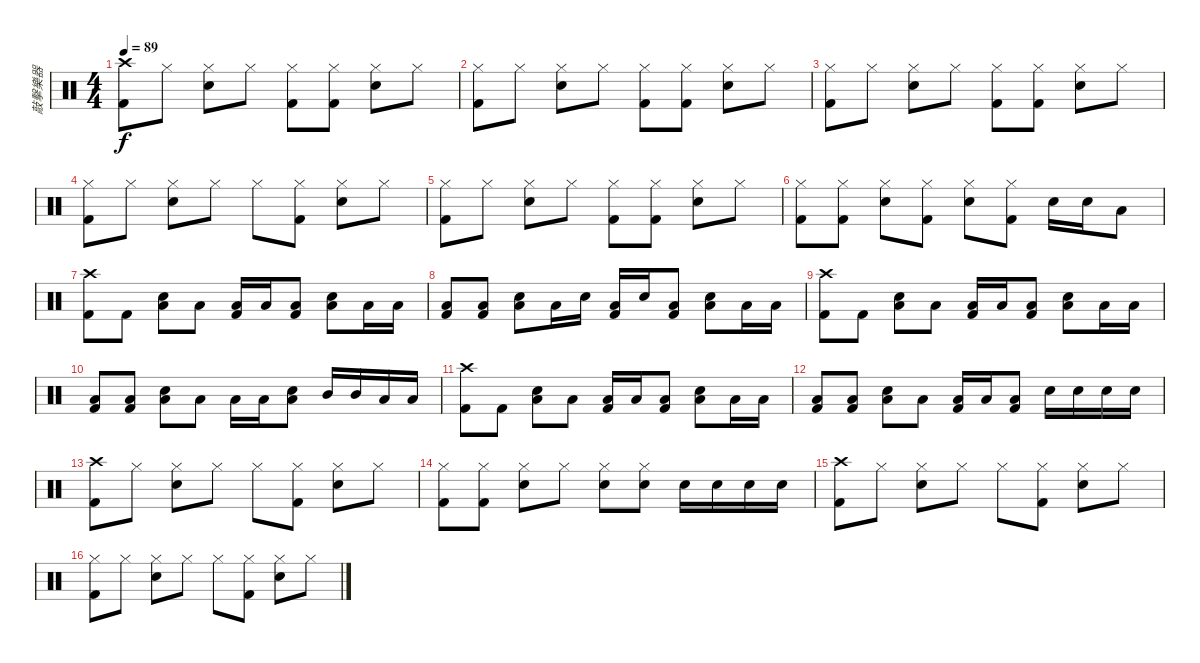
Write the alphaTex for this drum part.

\track ("敲擊樂器" "敲擊樂器") {instrument percussion}
\staff {score}
\articulation defaults
\ts (4 4)
\tempo 89
\clef neutral
\ks c
("Crash high (hit)" "Kick (hit) 2").8{dy f} "Hi-Hat (closed)".8 ("Hi-Hat (closed)" "Snare (hit) 2").8 "Hi-Hat (closed)".8 ("Hi-Hat (closed)" "Kick (hit) 2").8 ("Hi-Hat (closed)" "Kick (hit) 2").8 ("Hi-Hat (closed)" "Snare (hit) 2").8 "Hi-Hat (closed)".8 |
("Hi-Hat (closed)" "Kick (hit) 2").8 "Hi-Hat (closed)".8 ("Hi-Hat (closed)" "Snare (hit) 2").8 "Hi-Hat (closed)".8 ("Hi-Hat (closed)" "Kick (hit) 2").8 ("Hi-Hat (closed)" "Kick (hit) 2").8 ("Hi-Hat (closed)" "Snare (hit) 2").8 "Hi-Hat (closed)".8 |
("Hi-Hat (closed)" "Kick (hit) 2").8 "Hi-Hat (closed)".8 ("Hi-Hat (closed)" "Snare (hit) 2").8 "Hi-Hat (closed)".8 ("Hi-Hat (closed)" "Kick (hit) 2").8 ("Hi-Hat (closed)" "Kick (hit) 2").8 ("Hi-Hat (closed)" "Snare (hit) 2").8 "Hi-Hat (closed)".8 |
("Hi-Hat (closed)" "Kick (hit) 2").8 "Hi-Hat (closed)".8 ("Hi-Hat (closed)" "Snare (hit) 2").8 "Hi-Hat (closed)".8 "Hi-Hat (closed)".8 ("Hi-Hat (closed)" "Kick (hit) 2").8 ("Hi-Hat (closed)" "Snare (hit) 2").8 "Hi-Hat (closed)".8 |
("Hi-Hat (closed)" "Kick (hit) 2").8 "Hi-Hat (closed)".8 ("Hi-Hat (closed)" "Snare (hit) 2").8 "Hi-Hat (closed)".8 ("Hi-Hat (closed)" "Kick (hit) 2").8 ("Hi-Hat (closed)" "Kick (hit) 2").8 ("Hi-Hat (closed)" "Snare (hit) 2").8 "Hi-Hat (closed)".8 |
("Hi-Hat (closed)" "Kick (hit) 2").8 ("Hi-Hat (closed)" "Kick (hit) 2").8 ("Hi-Hat (closed)" "Snare (hit) 2").8 ("Hi-Hat (closed)" "Kick (hit) 2").8 ("Hi-Hat (closed)" "Snare (hit) 2").8 ("Hi-Hat (closed)" "Kick (hit) 2").8 "Snare (hit) 2".16 "Snare (hit) 2".16 "Low Tom (hit)".8 |
("Crash high (hit)" "Kick (hit) 2").8 "Kick (hit) 2".8 ("Snare (hit) 2" "Low Floor Tom (hit)").8 "Low Floor Tom (hit)".8 ("Low Floor Tom (hit)" "Kick (hit) 2").16 "Low Floor Tom (hit)".16 ("Low Floor Tom (hit)" "Kick (hit) 2").8 ("Snare (hit) 2" "Low Floor Tom (hit)").8 "Low Floor Tom (hit)".16 "Low Floor Tom (hit)".16 |
("Low Floor Tom (hit)" "Kick (hit) 2").8 ("Low Floor Tom (hit)" "Kick (hit) 2").8 ("Snare (hit) 2" "Low Floor Tom (hit)").8 "Low Floor Tom (hit)".16 "Snare (hit) 2".16 ("Low Floor Tom (hit)" "Kick (hit) 2").16 "Snare (hit) 2".16 ("Low Floor Tom (hit)" "Kick (hit) 2").8 ("Snare (hit) 2" "Low Floor Tom (hit)").8 "Low Floor Tom (hit)".16 "Low Floor Tom (hit)".16 |
("Crash high (hit)" "Kick (hit) 2").8 "Kick (hit) 2".8 ("Snare (hit) 2" "Low Floor Tom (hit)").8 "Low Floor Tom (hit)".8 ("Low Floor Tom (hit)" "Kick (hit) 2").16 "Low Floor Tom (hit)".16 ("Low Floor Tom (hit)" "Kick (hit) 2").8 ("Snare (hit) 2" "Low Floor Tom (hit)").8 "Low Floor Tom (hit)".16 "Low Floor Tom (hit)".16 |
("Low Floor Tom (hit)" "Kick (hit) 2").8 ("Low Floor Tom (hit)" "Kick (hit) 2").8 ("Snare (hit) 2" "Low Floor Tom (hit)").8 "Low Floor Tom (hit)".8 "Low Floor Tom (hit)".16 "Low Floor Tom (hit)".16 ("Snare (hit) 2" "Low Floor Tom (hit)").8 "Mid Tom (hit)".16 "Mid Tom (hit)".16 "Low Tom (hit)".16 "Low Tom (hit)".16 |
("Crash high (hit)" "Kick (hit) 2").8 "Kick (hit) 2".8 ("Snare (hit) 2" "Low Floor Tom (hit)").8 "Low Floor Tom (hit)".8 ("Low Floor Tom (hit)" "Kick (hit) 2").16 "Low Floor Tom (hit)".16 ("Low Floor Tom (hit)" "Kick (hit) 2").8 ("Snare (hit) 2" "Low Floor Tom (hit)").8 "Low Floor Tom (hit)".16 "Low Floor Tom (hit)".16 |
("Low Floor Tom (hit)" "Kick (hit) 2").8 ("Low Floor Tom (hit)" "Kick (hit) 2").8 ("Snare (hit) 2" "Low Floor Tom (hit)").8 "Low Floor Tom (hit)".8 ("Low Floor Tom (hit)" "Kick (hit) 2").16 "Low Floor Tom (hit)".16 ("Low Floor Tom (hit)" "Kick (hit) 2").8 "Snare (hit) 2".16 "Snare (hit) 2".16 "Snare (hit) 2".16 "Snare (hit) 2".16 |
("Crash high (hit)" "Kick (hit) 2").8 "Hi-Hat (closed)".8 ("Hi-Hat (closed)" "Snare (hit) 2").8 "Hi-Hat (closed)".8 "Hi-Hat (closed)".8 ("Hi-Hat (closed)" "Kick (hit) 2").8 ("Hi-Hat (closed)" "Snare (hit) 2").8 "Hi-Hat (closed)".8 |
("Hi-Hat (closed)" "Kick (hit) 2").8 ("Hi-Hat (closed)" "Kick (hit) 2").8 ("Hi-Hat (closed)" "Snare (hit) 2").8 "Hi-Hat (closed)".8 ("Hi-Hat (closed)" "Snare (hit) 2").8 ("Hi-Hat (closed)" "Snare (hit) 2").8 "Snare (hit) 2".16 "Snare (hit) 2".16 "Snare (hit) 2".16 "Snare (hit) 2".16 |
("Crash high (hit)" "Kick (hit) 2").8 "Hi-Hat (closed)".8 ("Hi-Hat (closed)" "Snare (hit) 2").8 "Hi-Hat (closed)".8 "Hi-Hat (closed)".8 ("Hi-Hat (closed)" "Kick (hit) 2").8 ("Hi-Hat (closed)" "Snare (hit) 2").8 "Hi-Hat (closed)".8 |
("Hi-Hat (closed)" "Kick (hit) 2").8 "Hi-Hat (closed)".8 ("Hi-Hat (closed)" "Snare (hit) 2").8 "Hi-Hat (closed)".8 "Hi-Hat (closed)".8 ("Hi-Hat (closed)" "Kick (hit) 2").8 ("Hi-Hat (closed)" "Snare (hit) 2").8 "Hi-Hat (closed)".8
